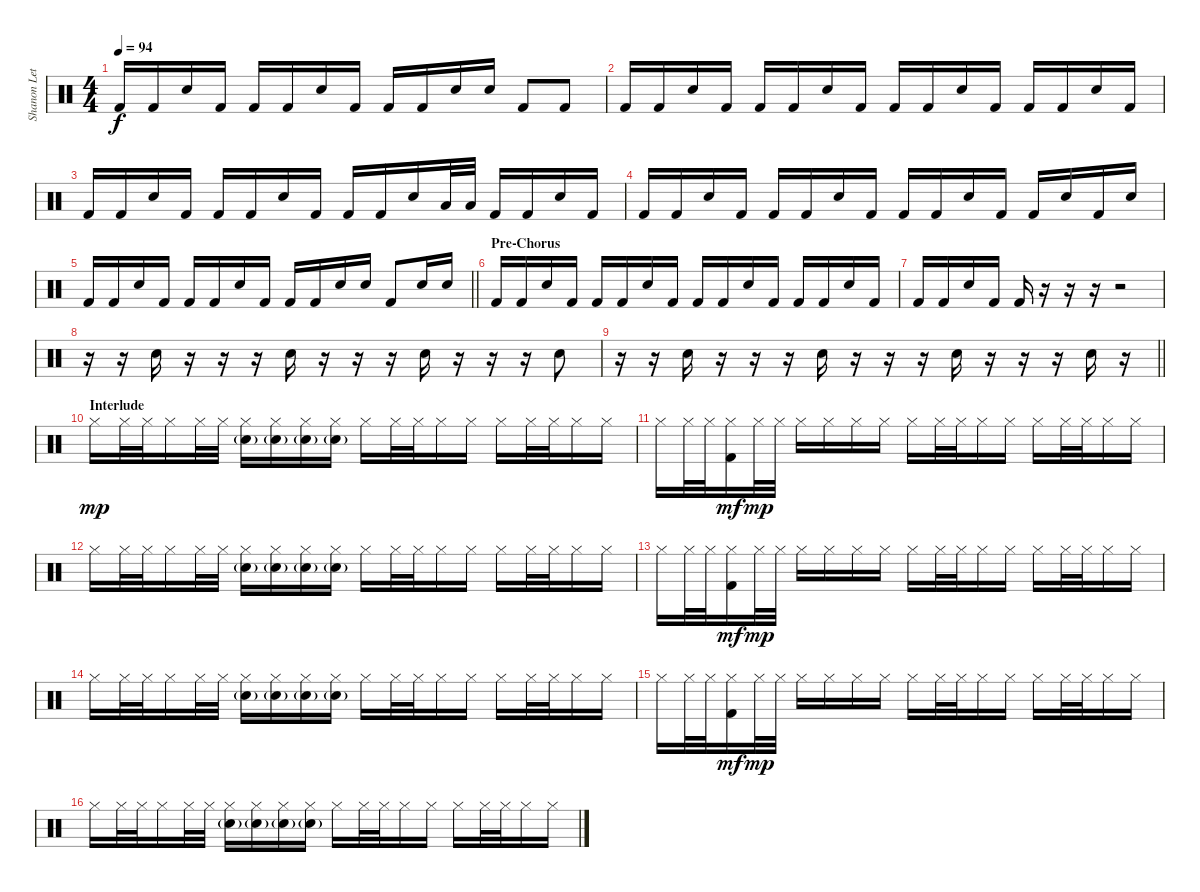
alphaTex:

\track ("Shanon Leto" "Shanon Let") {instrument percussion}
\staff {score}
\articulation defaults
\ts (4 4)
\tempo 94
\clef neutral
\ks c "Kick (hit) 2".16{dy f} "Kick (hit) 2".16 "Snare (hit) 2".16 "Kick (hit) 2".16 "Kick (hit) 2".16 "Kick (hit) 2".16 "Snare (hit) 2".16 "Kick (hit) 2".16 "Kick (hit) 2".16 "Kick (hit) 2".16 "Snare (hit) 2".16 "Snare (hit) 2".16 "Kick (hit) 2".8 "Kick (hit) 2".8
|
"Kick (hit) 2".16 "Kick (hit) 2".16 "Snare (hit) 2".16 "Kick (hit) 2".16 "Kick (hit) 2".16 "Kick (hit) 2".16 "Snare (hit) 2".16 "Kick (hit) 2".16 "Kick (hit) 2".16 "Kick (hit) 2".16 "Snare (hit) 2".16 "Kick (hit) 2".16 "Kick (hit) 2".16 "Kick (hit) 2".16 "Snare (hit) 2".16 "Kick (hit) 2".16 |
"Kick (hit) 2".16 "Kick (hit) 2".16 "Snare (hit) 2".16 "Kick (hit) 2".16 "Kick (hit) 2".16 "Kick (hit) 2".16 "Snare (hit) 2".16 "Kick (hit) 2".16 "Kick (hit) 2".16 "Kick (hit) 2".16 "Snare (hit) 2".16 "Low Tom (hit)".32 "Low Tom (hit)".32 "Kick (hit) 2".16 "Kick (hit) 2".16 "Snare (hit) 2".16 "Kick (hit) 2".16 |
"Kick (hit) 2".16 "Kick (hit) 2".16 "Snare (hit) 2".16 "Kick (hit) 2".16 "Kick (hit) 2".16 "Kick (hit) 2".16 "Snare (hit) 2".16 "Kick (hit) 2".16 "Kick (hit) 2".16 "Kick (hit) 2".16 "Snare (hit) 2".16 "Kick (hit) 2".16 "Kick (hit) 2".16 "Snare (hit) 2".16 "Kick (hit) 2".16 "Snare (hit) 2".16 |
\barLineRight lightlight "Kick (hit) 2".16 "Kick (hit) 2".16 "Snare (hit) 2".16 "Kick (hit) 2".16 "Kick (hit) 2".16 "Kick (hit) 2".16 "Snare (hit) 2".16 "Kick (hit) 2".16 "Kick (hit) 2".16 "Kick (hit) 2".16 "Snare (hit) 2".16 "Snare (hit) 2".16 "Kick (hit) 2".8 "Snare (hit) 2".16 "Snare (hit) 2".16
|
\section ("" "Pre-Chorus")
"Kick (hit) 2".16 "Kick (hit) 2".16 "Snare (hit) 2".16 "Kick (hit) 2".16 "Kick (hit) 2".16 "Kick (hit) 2".16 "Snare (hit) 2".16 "Kick (hit) 2".16 "Kick (hit) 2".16 "Kick (hit) 2".16 "Snare (hit) 2".16 "Kick (hit) 2".16 "Kick (hit) 2".16 "Kick (hit) 2".16 "Snare (hit) 2".16 "Kick (hit) 2".16 |
"Kick (hit) 2".16 "Kick (hit) 2".16 "Snare (hit) 2".16 "Kick (hit) 2".16 "Kick (hit) 2".16 r.16 r.16 r.16 r.2 |
r.16 r.16 "Snare (hit) 2".16 r.16 r.16 r.16 "Snare (hit) 2".16 r.16 r.16 r.16 "Snare (hit) 2".16 r.16 r.16 r.16 "Snare (hit) 2".8 |
\barLineRight lightlight
r.16 r.16 "Snare (hit) 2".16 r.16 r.16 r.16 "Snare (hit) 2".16 r.16 r.16 r.16 "Snare (hit) 2".16 r.16 r.16 r.16 "Snare (hit) 2".16 r.16 |
\section ("" "Interlude")
"Hi-Hat (closed)".16{dy mp} "Hi-Hat (closed)".32 "Hi-Hat (closed)".32 "Hi-Hat (closed)".16 "Hi-Hat (closed)".32 "Hi-Hat (closed)".32 ("Electric Snare (hit)"{g} "Hi-Hat (closed)").16 ("Electric Snare (hit)"{g} "Hi-Hat (closed)").16 ("Electric Snare (hit)"{g} "Hi-Hat (closed)").16 ("Electric Snare (hit)"{g} "Hi-Hat (closed)").16 "Hi-Hat (closed)".16 "Hi-Hat (closed)".32 "Hi-Hat (closed)".32 "Hi-Hat (closed)".16 "Hi-Hat (closed)".16 "Hi-Hat (closed)".16 "Hi-Hat (closed)".32 "Hi-Hat (closed)".32 "Hi-Hat (closed)".16 "Hi-Hat (closed)".16 |
"Hi-Hat (closed)".16 "Hi-Hat (closed)".32 "Hi-Hat (closed)".32 ("Hi-Hat (closed)" "Kick (hit) 2").16{dy mf} "Hi-Hat (closed)".32{dy mp} "Hi-Hat (closed)".32 "Hi-Hat (closed)".16 "Hi-Hat (closed)".16 "Hi-Hat (closed)".16 "Hi-Hat (closed)".16 "Hi-Hat (closed)".16 "Hi-Hat (closed)".32 "Hi-Hat (closed)".32 "Hi-Hat (closed)".16 "Hi-Hat (closed)".16 "Hi-Hat (closed)".16 "Hi-Hat (closed)".32 "Hi-Hat (closed)".32 "Hi-Hat (closed)".16 "Hi-Hat (closed)".16 |
"Hi-Hat (closed)".16 "Hi-Hat (closed)".32 "Hi-Hat (closed)".32 "Hi-Hat (closed)".16 "Hi-Hat (closed)".32 "Hi-Hat (closed)".32 ("Electric Snare (hit)"{g} "Hi-Hat (closed)").16 ("Electric Snare (hit)"{g} "Hi-Hat (closed)").16 ("Electric Snare (hit)"{g} "Hi-Hat (closed)").16 ("Electric Snare (hit)"{g} "Hi-Hat (closed)").16 "Hi-Hat (closed)".16 "Hi-Hat (closed)".32 "Hi-Hat (closed)".32 "Hi-Hat (closed)".16 "Hi-Hat (closed)".16 "Hi-Hat (closed)".16 "Hi-Hat (closed)".32 "Hi-Hat (closed)".32 "Hi-Hat (closed)".16 "Hi-Hat (closed)".16 |
"Hi-Hat (closed)".16 "Hi-Hat (closed)".32 "Hi-Hat (closed)".32 ("Hi-Hat (closed)" "Kick (hit) 2").16{dy mf} "Hi-Hat (closed)".32{dy mp} "Hi-Hat (closed)".32 "Hi-Hat (closed)".16 "Hi-Hat (closed)".16 "Hi-Hat (closed)".16 "Hi-Hat (closed)".16 "Hi-Hat (closed)".16 "Hi-Hat (closed)".32 "Hi-Hat (closed)".32 "Hi-Hat (closed)".16 "Hi-Hat (closed)".16 "Hi-Hat (closed)".16 "Hi-Hat (closed)".32 "Hi-Hat (closed)".32 "Hi-Hat (closed)".16 "Hi-Hat (closed)".16 |
"Hi-Hat (closed)".16 "Hi-Hat (closed)".32 "Hi-Hat (closed)".32 "Hi-Hat (closed)".16 "Hi-Hat (closed)".32 "Hi-Hat (closed)".32 ("Electric Snare (hit)"{g} "Hi-Hat (closed)").16 ("Electric Snare (hit)"{g} "Hi-Hat (closed)").16 ("Electric Snare (hit)"{g} "Hi-Hat (closed)").16 ("Electric Snare (hit)"{g} "Hi-Hat (closed)").16 "Hi-Hat (closed)".16 "Hi-Hat (closed)".32 "Hi-Hat (closed)".32 "Hi-Hat (closed)".16 "Hi-Hat (closed)".16 "Hi-Hat (closed)".16 "Hi-Hat (closed)".32 "Hi-Hat (closed)".32 "Hi-Hat (closed)".16 "Hi-Hat (closed)".16 |
"Hi-Hat (closed)".16 "Hi-Hat (closed)".32 "Hi-Hat (closed)".32 ("Hi-Hat (closed)" "Kick (hit) 2").16{dy mf} "Hi-Hat (closed)".32{dy mp} "Hi-Hat (closed)".32 "Hi-Hat (closed)".16 "Hi-Hat (closed)".16 "Hi-Hat (closed)".16 "Hi-Hat (closed)".16 "Hi-Hat (closed)".16 "Hi-Hat (closed)".32 "Hi-Hat (closed)".32 "Hi-Hat (closed)".16 "Hi-Hat (closed)".16 "Hi-Hat (closed)".16 "Hi-Hat (closed)".32 "Hi-Hat (closed)".32 "Hi-Hat (closed)".16 "Hi-Hat (closed)".16 |
"Hi-Hat (closed)".16 "Hi-Hat (closed)".32 "Hi-Hat (closed)".32 "Hi-Hat (closed)".16 "Hi-Hat (closed)".32 "Hi-Hat (closed)".32 ("Electric Snare (hit)"{g} "Hi-Hat (closed)").16 ("Electric Snare (hit)"{g} "Hi-Hat (closed)").16 ("Electric Snare (hit)"{g} "Hi-Hat (closed)").16 ("Electric Snare (hit)"{g} "Hi-Hat (closed)").16 "Hi-Hat (closed)".16 "Hi-Hat (closed)".32 "Hi-Hat (closed)".32 "Hi-Hat (closed)".16 "Hi-Hat (closed)".16 "Hi-Hat (closed)".16 "Hi-Hat (closed)".32 "Hi-Hat (closed)".32 "Hi-Hat (closed)".16 "Hi-Hat (closed)".16
